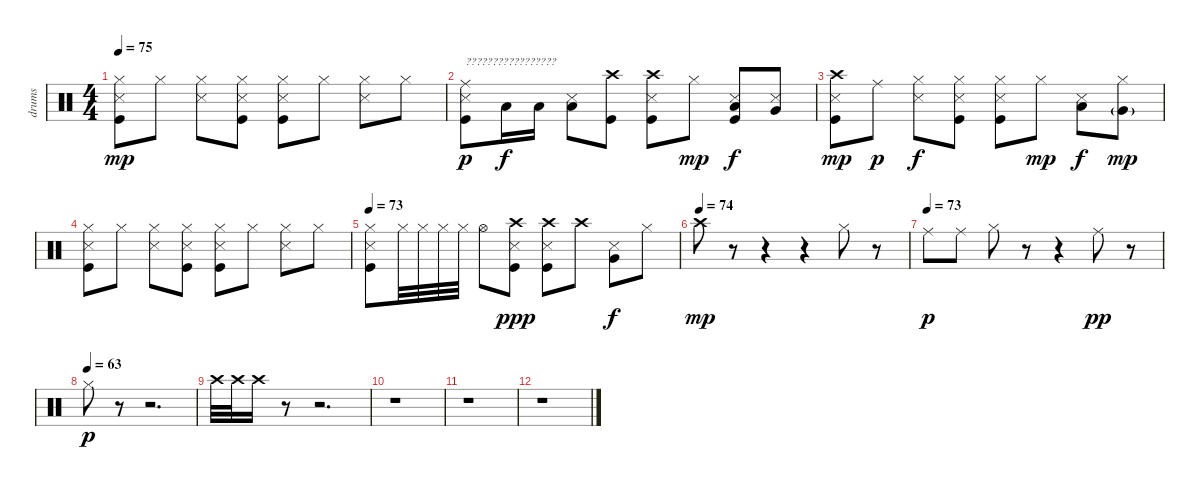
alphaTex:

\track ("drums" "drums") {instrument percussion}
\staff {score}
\articulation defaults
\ts (4 4)
\tempo 75
\clef neutral
\ks c
("Metronome (hit)" "Hi-Hat (closed)" "Kick (hit)").8{dy mp} "Hi-Hat (closed)".8 ("Metronome (hit)" "Hi-Hat (closed)").8 ("Metronome (hit)" "Hi-Hat (closed)" "Kick (hit)").8 ("Metronome (hit)" "Hi-Hat (closed)" "Kick (hit)").8 "Hi-Hat (closed)".8 ("Metronome (hit)" "Hi-Hat (closed)").8 "Hi-Hat (closed)".8 |
("Ride (middle)" "Metronome (hit)" "Kick (hit)").8{txt "?????????????????" dy p} "Low Tom (hit)".16{dy f} "Low Tom (hit)".16 ("Low Tom (hit)" "Metronome (hit)").8 ("Crash high (hit)" "Kick (hit)").8 ("Crash high (hit)" "Metronome (hit)" "Kick (hit)").8 "Hi-Hat (closed)".8{dy mp} ("Low Tom (hit)" "Metronome (hit)" "Kick (hit)").8{dy f} ("Very Low Tom (hit)" "Metronome (hit)").8 |
("Crash high (hit)" "Metronome (hit)" "Kick (hit)").8{dy mp} "Ride (middle)".8{dy p} ("Metronome (hit)" "Hi-Hat (closed)").8{dy f} ("Metronome (hit)" "Hi-Hat (closed)" "Kick (hit)").8 ("Metronome (hit)" "Hi-Hat (closed)" "Kick (hit)").8 "Hi-Hat (closed)".8{dy mp} ("Low Tom (hit)" "Metronome (hit)").8{dy f} ("Very Low Tom (hit)"{g} "Hi-Hat (closed)").8{dy mp} |
("Metronome (hit)" "Hi-Hat (closed)" "Kick (hit)").8 "Hi-Hat (closed)".8 ("Metronome (hit)" "Hi-Hat (closed)").8 ("Metronome (hit)" "Hi-Hat (closed)" "Kick (hit)").8 ("Metronome (hit)" "Hi-Hat (closed)" "Kick (hit)").8 "Hi-Hat (closed)".8 ("Metronome (hit)" "Hi-Hat (closed)").8 "Hi-Hat (closed)".8 |
\tempo 73
("Metronome (hit)" "Hi-Hat (closed)" "Kick (hit)").8 "Hi-Hat (closed)".32 "Hi-Hat (closed)".32 "Hi-Hat (closed)".32 "Hi-Hat (closed)".32 "Hi-Hat (open)".8 ("Crash high (hit)" "Metronome (hit)" "Kick (hit)").8{dy ppp} ("Crash high (hit)" "Metronome (hit)" "Kick (hit)").8 "Crash high (hit)".8 ("Very Low Tom (hit)" "Metronome (hit)").8{dy f} "Hi-Hat (closed)".8 |
\tempo (74)
"Crash high (hit)".8{dy mp} r.8 r.4 r.4 "Hi-Hat (closed)".8 r.8 |
\tempo (73)
"Ride (middle)".8{dy p} "Ride (middle)".8 "Hi-Hat (closed)".8 r.8 r.4{txt " "} "Ride (middle)".8{dy pp} r.8 |
\tempo (63)
"Hi-Hat (closed)".8{dy p} r.8 r.2{d} |
"Crash high (hit)".32 "Crash high (hit)".32 "Crash high (hit)".16 r.8 r.2{d} |
r.1 |
r.1 |
r.1
